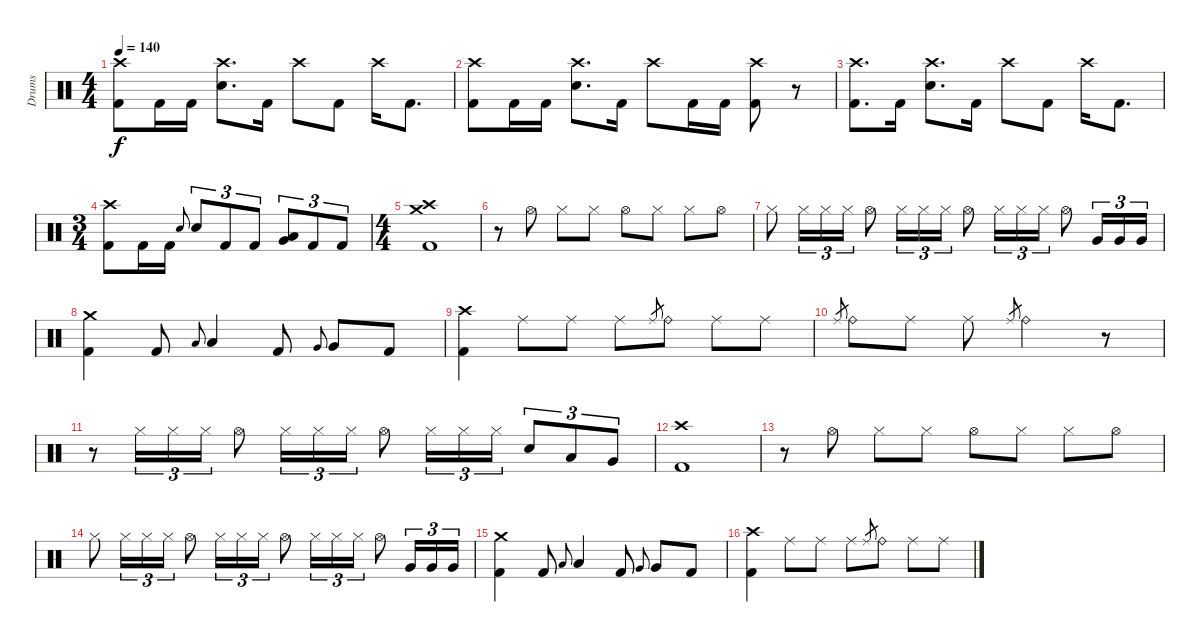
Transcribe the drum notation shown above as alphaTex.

\track ("Drums" "Drums") {instrument percussion}
\staff {score}
\articulation defaults
\ts (4 4)
\tempo 140
\clef neutral
\ks c
("Crash high (hit)" "Kick (hit) 2").8{dy f} "Kick (hit) 2".16 "Kick (hit) 2".16 ("Crash high (hit)" "Electric Snare (hit)").8{d} "Kick (hit) 2".16 "Crash high (hit)".8 "Kick (hit) 2".8 "Crash high (hit)".16 "Kick (hit) 2".8{d} |
("Crash high (hit)" "Kick (hit) 2").8 "Kick (hit) 2".16 "Kick (hit) 2".16 ("Crash high (hit)" "Electric Snare (hit)").8{d} "Kick (hit) 2".16 "Crash high (hit)".8 "Kick (hit) 2".16 "Kick (hit) 2".16 ("Crash high (hit)" "Kick (hit) 2").8 r.8{volume 0} |
("Crash high (hit)" "Kick (hit) 2").8{d volume 16} "Kick (hit) 2".16 ("Crash high (hit)" "Electric Snare (hit)").8{d} "Kick (hit) 2".16 "Crash high (hit)".8 "Kick (hit) 2".8 "Crash high (hit)".16 "Kick (hit) 2".8{d} |
\ts (3 4)
("Crash high (hit)" "Kick (hit) 2").8 "Kick (hit) 2".16 "Kick (hit) 2".16 "Electric Snare (hit)".8{gr onbeat} "Electric Snare (hit)".8{tu (3 2)} "Kick (hit) 2".8{tu (3 2)} "Kick (hit) 2".8{tu (3 2)} ("Low Tom (hit)" "Very Low Tom (hit)").8{tu (3 2)} "Kick (hit) 2".8{tu (3 2)} "Kick (hit) 2".8{tu (3 2)} |
\ts (4 4)
("Crash medium (hit)" "Crash high (hit)" "Kick (hit) 2").1 |
r.8 "Hi-Hat (open)".8 "Hi-Hat (closed)".8 "Hi-Hat (closed)".8 "Hi-Hat (open)".8 "Hi-Hat (closed)".8 "Hi-Hat (closed)".8 "Hi-Hat (open)".8 |
"Hi-Hat (closed)".8 "Hi-Hat (closed)".16{tu (3 2)} "Hi-Hat (closed)".16{tu (3 2)} "Hi-Hat (closed)".16{tu (3 2)} "Hi-Hat (open)".8 "Hi-Hat (closed)".16{tu (3 2)} "Hi-Hat (closed)".16{tu (3 2)} "Hi-Hat (closed)".16{tu (3 2)} "Hi-Hat (open)".8 "Hi-Hat (closed)".16{tu (3 2)} "Hi-Hat (closed)".16{tu (3 2)} "Hi-Hat (closed)".16{tu (3 2)} "Hi-Hat (open)".8 "Very Low Tom (hit)".16{tu (3 2)} "Very Low Tom (hit)".16{tu (3 2)} "Very Low Tom (hit)".16{tu (3 2)} |
("Crash medium (hit)" "Kick (hit) 2").4 "Kick (hit) 2".8 "Low Tom (hit)".8{gr onbeat} "Low Tom (hit)".4 "Kick (hit) 2".8 "Very Low Tom (hit)".8{gr onbeat} "Very Low Tom (hit)".8 "Kick (hit) 2".8 |
("Crash high (hit)" "Kick (hit) 2").4 "Ride (middle)".8 "Ride (middle)".8 "Ride (middle)".8 "Ride (middle)".8{gr} "Ride (bell)".8 "Ride (middle)".8 "Ride (middle)".8 |
"Ride (middle)".8{gr} "Ride (bell)".8 "Ride (middle)".8 "Ride (middle)".8 "Ride (middle)".8{gr} "Ride (bell)".2 r.8 |
r.8 "Hi-Hat (closed)".16{tu (3 2)} "Hi-Hat (closed)".16{tu (3 2)} "Hi-Hat (closed)".16{tu (3 2)} "Hi-Hat (open)".8 "Hi-Hat (closed)".16{tu (3 2)} "Hi-Hat (closed)".16{tu (3 2)} "Hi-Hat (closed)".16{tu (3 2)} "Hi-Hat (open)".8 "Hi-Hat (closed)".16{tu (3 2)} "Hi-Hat (closed)".16{tu (3 2)} "Hi-Hat (closed)".16{tu (3 2)} "Electric Snare (hit)".8{tu (3 2)} "Low Tom (hit)".8{tu (3 2)} "Very Low Tom (hit)".8{tu (3 2)} |
("Crash high (hit)" "Kick (hit) 2").1 |
r.8 "Hi-Hat (open)".8 "Hi-Hat (closed)".8 "Hi-Hat (closed)".8 "Hi-Hat (open)".8 "Hi-Hat (closed)".8 "Hi-Hat (closed)".8 "Hi-Hat (open)".8 |
"Hi-Hat (closed)".8 "Hi-Hat (closed)".16{tu (3 2)} "Hi-Hat (closed)".16{tu (3 2)} "Hi-Hat (closed)".16{tu (3 2)} "Hi-Hat (open)".8 "Hi-Hat (closed)".16{tu (3 2)} "Hi-Hat (closed)".16{tu (3 2)} "Hi-Hat (closed)".16{tu (3 2)} "Hi-Hat (open)".8 "Hi-Hat (closed)".16{tu (3 2)} "Hi-Hat (closed)".16{tu (3 2)} "Hi-Hat (closed)".16{tu (3 2)} "Hi-Hat (open)".8 "Very Low Tom (hit)".16{tu (3 2)} "Very Low Tom (hit)".16{tu (3 2)} "Very Low Tom (hit)".16{tu (3 2)} |
("Crash medium (hit)" "Kick (hit) 2").4 "Kick (hit) 2".8 "Low Tom (hit)".8{gr onbeat} "Low Tom (hit)".4 "Kick (hit) 2".8 "Very Low Tom (hit)".8{gr onbeat} "Very Low Tom (hit)".8 "Kick (hit) 2".8 |
("Crash high (hit)" "Kick (hit) 2").4 "Ride (middle)".8 "Ride (middle)".8 "Ride (middle)".8 "Ride (middle)".8{gr} "Ride (bell)".8 "Ride (middle)".8 "Ride (middle)".8
